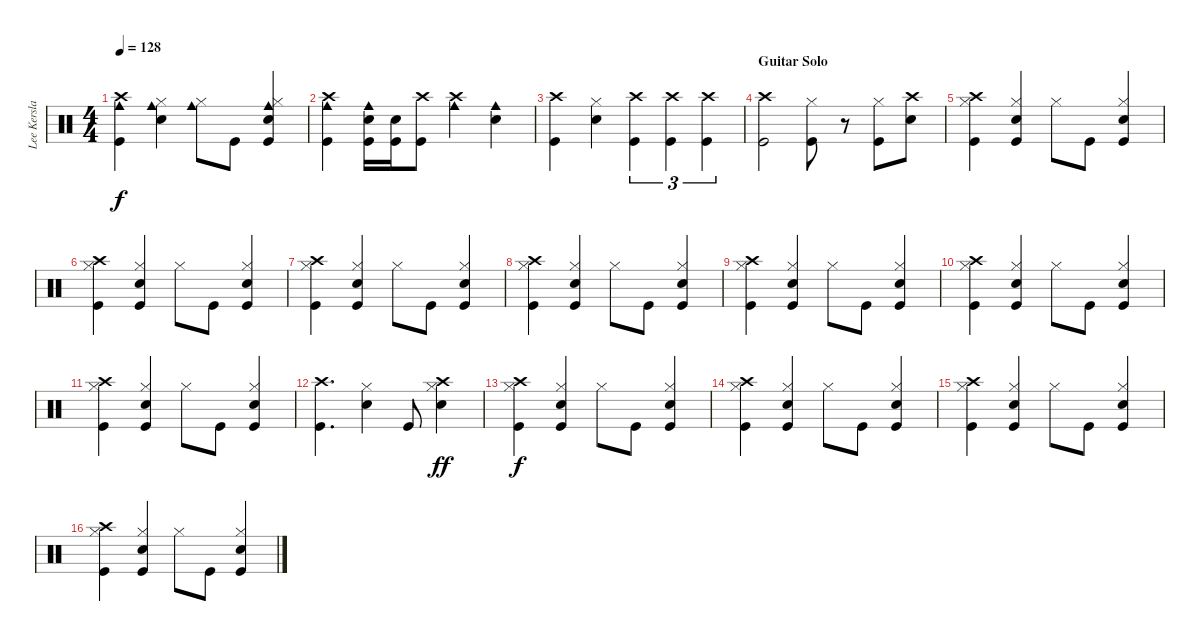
\track ("Lee Kerslake (Drums)" "Lee Kersla") {instrument percussion}
\staff {score}
\articulation defaults
\ts (4 4)
\tempo 128
\clef neutral
\ks c
("Kick (hit)" "Crash high (hit)" "Cowbell medium (hit)").4{dy f} ("Hi-Hat (closed)" "Electric Snare (hit)" "Cowbell medium (hit)").4 ("Hi-Hat (closed)" "Cowbell medium (hit)").8 "Kick (hit)".8 ("Kick (hit)" "Electric Snare (hit)" "Hi-Hat (closed)" "Cowbell medium (hit)").4 |
("Crash high (hit)" "Kick (hit)" "Cowbell medium (hit)").4 ("Electric Snare (hit)" "Kick (hit)" "Cowbell medium (hit)").16 ("Electric Snare (hit)" "Kick (hit)").16 ("Kick (hit)" "Crash high (hit)").8 ("Crash high (hit)" "Cowbell medium (hit)").4 ("Electric Snare (hit)" "Cowbell medium (hit)").4 |
("Kick (hit)" "Crash high (hit)").4 ("Hi-Hat (closed)" "Electric Snare (hit)").4 ("Kick (hit)" "Crash high (hit)").4{tu (3 2)} ("Kick (hit)" "Crash high (hit)").4{tu (3 2)} ("Kick (hit)" "Crash high (hit)").4{tu (3 2)} |
\section ("" "Guitar Solo")
("Kick (hit)" "Crash high (hit)").2 ("Hi-Hat (closed)" "Kick (hit)").8 r.8 ("Hi-Hat (closed)" "Kick (hit)").8 ("Crash high (hit)" "Electric Snare (hit)").8 |
("Crash high (hit)" "Hi-Hat (closed)" "Kick (hit)").4 ("Hi-Hat (closed)" "Kick (hit)" "Electric Snare (hit)").4 "Hi-Hat (closed)".8 "Kick (hit)".8 ("Hi-Hat (closed)" "Electric Snare (hit)" "Kick (hit)").4 |
("Crash high (hit)" "Hi-Hat (closed)" "Kick (hit)").4 ("Hi-Hat (closed)" "Kick (hit)" "Electric Snare (hit)").4 "Hi-Hat (closed)".8 "Kick (hit)".8 ("Hi-Hat (closed)" "Electric Snare (hit)" "Kick (hit)").4 |
("Crash high (hit)" "Hi-Hat (closed)" "Kick (hit)").4 ("Hi-Hat (closed)" "Kick (hit)" "Electric Snare (hit)").4 "Hi-Hat (closed)".8 "Kick (hit)".8 ("Hi-Hat (closed)" "Electric Snare (hit)" "Kick (hit)").4 |
("Crash high (hit)" "Hi-Hat (closed)" "Kick (hit)").4 ("Hi-Hat (closed)" "Kick (hit)" "Electric Snare (hit)").4 "Hi-Hat (closed)".8 "Kick (hit)".8 ("Hi-Hat (closed)" "Electric Snare (hit)" "Kick (hit)").4 |
("Crash high (hit)" "Hi-Hat (closed)" "Kick (hit)").4 ("Hi-Hat (closed)" "Kick (hit)" "Electric Snare (hit)").4 "Hi-Hat (closed)".8 "Kick (hit)".8 ("Hi-Hat (closed)" "Electric Snare (hit)" "Kick (hit)").4 |
("Crash high (hit)" "Hi-Hat (closed)" "Kick (hit)").4 ("Hi-Hat (closed)" "Kick (hit)" "Electric Snare (hit)").4 "Hi-Hat (closed)".8 "Kick (hit)".8 ("Hi-Hat (closed)" "Electric Snare (hit)" "Kick (hit)").4 |
("Crash high (hit)" "Hi-Hat (closed)" "Kick (hit)").4 ("Hi-Hat (closed)" "Kick (hit)" "Electric Snare (hit)").4 "Hi-Hat (closed)".8 "Kick (hit)".8 ("Hi-Hat (closed)" "Electric Snare (hit)" "Kick (hit)").4 |
("Kick (hit)" "Crash high (hit)").4{d} ("Hi-Hat (closed)" "Electric Snare (hit)").4 "Kick (hit)".8 ("Crash high (hit)" "Hi-Hat (closed)" "Electric Snare (hit)").4{dy ff} |
("Crash high (hit)" "Hi-Hat (closed)" "Kick (hit)").4{dy f} ("Hi-Hat (closed)" "Kick (hit)" "Electric Snare (hit)").4 "Hi-Hat (closed)".8 "Kick (hit)".8 ("Hi-Hat (closed)" "Electric Snare (hit)" "Kick (hit)").4 |
("Crash high (hit)" "Hi-Hat (closed)" "Kick (hit)").4 ("Hi-Hat (closed)" "Kick (hit)" "Electric Snare (hit)").4 "Hi-Hat (closed)".8 "Kick (hit)".8 ("Hi-Hat (closed)" "Electric Snare (hit)" "Kick (hit)").4 |
("Crash high (hit)" "Hi-Hat (closed)" "Kick (hit)").4 ("Hi-Hat (closed)" "Kick (hit)" "Electric Snare (hit)").4 "Hi-Hat (closed)".8 "Kick (hit)".8 ("Hi-Hat (closed)" "Electric Snare (hit)" "Kick (hit)").4 |
("Crash high (hit)" "Hi-Hat (closed)" "Kick (hit)").4 ("Hi-Hat (closed)" "Kick (hit)" "Electric Snare (hit)").4 "Hi-Hat (closed)".8 "Kick (hit)".8 ("Hi-Hat (closed)" "Electric Snare (hit)" "Kick (hit)").4
